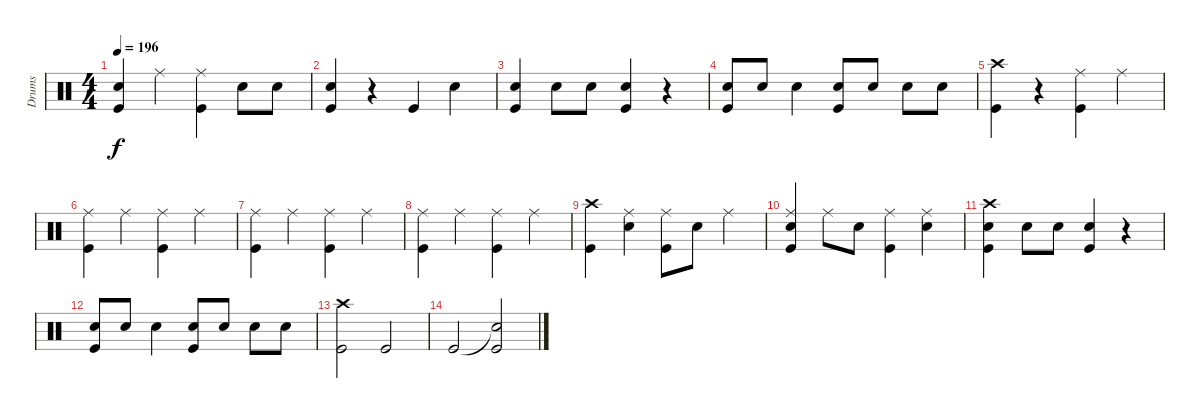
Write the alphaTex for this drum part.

\track ("Drums" "Drums") {instrument percussion}
\staff {score}
\articulation defaults
\ts (4 4)
\tempo 196
\clef neutral
\ks c
("Snare (hit)" "Kick (hit)").4{dy f} "Ride (middle)".4 ("Ride (middle)" "Kick (hit)").4 "Electric Snare (hit)".8 "Electric Snare (hit)".8 |
("Electric Snare (hit)" "Kick (hit)").4 r.4 "Kick (hit)".4 "Electric Snare (hit)".4 |
("Electric Snare (hit)" "Kick (hit)").4 "Electric Snare (hit)".8 "Electric Snare (hit)".8 ("Electric Snare (hit)" "Kick (hit)").4 r.4 |
("Electric Snare (hit)" "Kick (hit)").8 "Electric Snare (hit)".8 "Electric Snare (hit)".4 ("Electric Snare (hit)" "Kick (hit)").8 "Electric Snare (hit)".8 "Electric Snare (hit)".8 "Electric Snare (hit)".8 |
("Crash high (hit)" "Kick (hit)").4 r.4 ("Ride (middle)" "Kick (hit)").4 "Ride (middle)".4 |
("Ride (middle)" "Kick (hit)").4 "Ride (middle)".4 ("Ride (middle)" "Kick (hit)").4 "Ride (middle)".4 |
("Ride (middle)" "Kick (hit)").4 "Ride (middle)".4 ("Ride (middle)" "Kick (hit)").4 "Ride (middle)".4 |
("Ride (middle)" "Kick (hit)").4 "Ride (middle)".4 ("Ride (middle)" "Kick (hit)").4 "Ride (middle)".4 |
("Crash high (hit)" "Kick (hit)").4 ("Ride (middle)" "Electric Snare (hit)").4 ("Ride (middle)" "Kick (hit)").8 "Electric Snare (hit)".8 "Ride (middle)".4 |
("Ride (middle)" "Electric Snare (hit)" "Kick (hit)").4 "Ride (middle)".8 "Electric Snare (hit)".8 ("Ride (middle)" "Kick (hit)").4 ("Ride (middle)" "Electric Snare (hit)").4 |
("Crash high (hit)" "Electric Snare (hit)" "Kick (hit)").4 "Electric Snare (hit)".8 "Electric Snare (hit)".8 ("Electric Snare (hit)" "Kick (hit)").4 r.4 |
("Electric Snare (hit)" "Kick (hit)").8 "Electric Snare (hit)".8 "Electric Snare (hit)".4 ("Electric Snare (hit)" "Kick (hit)").8 "Electric Snare (hit)".8 "Electric Snare (hit)".8 "Electric Snare (hit)".8 |
("Crash high (hit)" "Kick (hit)").2 "Kick (hit)".2 |
"Kick (hit)".2 ("Snare (hit)"{t} "Kick (hit)").2
